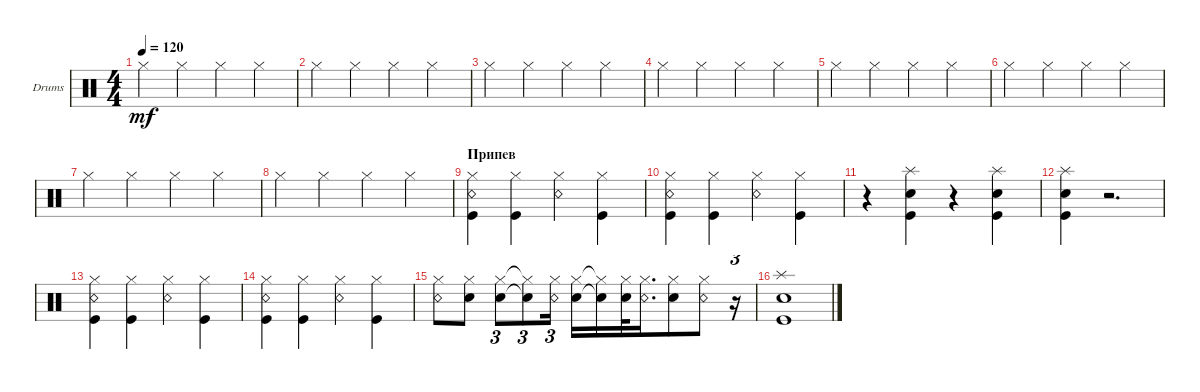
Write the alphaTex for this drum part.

\bracketExtendMode groupsimilarinstruments
\firstSystemTrackNameOrientation horizontal
\otherSystemsTrackNameOrientation horizontal
\track ("БАРАБАНЫ" "Drums") {instrument percussion}
\staff {score}
\articulation defaults
\ts (4 4)
\tempo 120
\clef neutral
\ks c "Hi-Hat (closed)".4{dy mf} "Hi-Hat (closed)".4 "Hi-Hat (closed)".4 "Hi-Hat (closed)".4
|
"Hi-Hat (closed)".4 "Hi-Hat (closed)".4 "Hi-Hat (closed)".4 "Hi-Hat (closed)".4 |
"Hi-Hat (closed)".4 "Hi-Hat (closed)".4 "Hi-Hat (closed)".4 "Hi-Hat (closed)".4 |
"Hi-Hat (closed)".4 "Hi-Hat (closed)".4 "Hi-Hat (closed)".4 "Hi-Hat (closed)".4 |
"Hi-Hat (closed)".4 "Hi-Hat (closed)".4 "Hi-Hat (closed)".4 "Hi-Hat (closed)".4 |
"Hi-Hat (closed)".4 "Hi-Hat (closed)".4 "Hi-Hat (closed)".4 "Hi-Hat (closed)".4 |
"Hi-Hat (closed)".4 "Hi-Hat (closed)".4 "Hi-Hat (closed)".4 "Hi-Hat (closed)".4 |
"Hi-Hat (closed)".4 "Hi-Hat (closed)".4 "Hi-Hat (closed)".4 "Hi-Hat (closed)".4 |
\section ("" "Припев")
("Snare (rim shot)" "Kick (hit)" "Hi-Hat (closed)").4 ("Kick (hit)" "Hi-Hat (closed)").4 ("Snare (rim shot)" "Hi-Hat (closed)").4 ("Kick (hit)" "Hi-Hat (closed)").4 |
("Snare (rim shot)" "Kick (hit)" "Hi-Hat (closed)").4 ("Kick (hit)" "Hi-Hat (closed)").4 ("Snare (rim shot)" "Hi-Hat (closed)").4 ("Kick (hit)" "Hi-Hat (closed)").4 |
r.4 ("Kick (hit)" "Snare (hit) 2" "Splash (hit)").4 r.4 ("Kick (hit)" "Snare (hit) 2" "Splash (hit)").4 |
("Splash (hit)" "Snare (hit) 2" "Kick (hit)").4 r.2{d} |
("Snare (rim shot)" "Kick (hit)" "Hi-Hat (closed)").4 ("Kick (hit)" "Hi-Hat (closed)").4 ("Snare (rim shot)" "Hi-Hat (closed)").4 ("Kick (hit)" "Hi-Hat (closed)").4 |
("Snare (rim shot)" "Kick (hit)" "Hi-Hat (closed)").4 ("Kick (hit)" "Hi-Hat (closed)").4 ("Snare (rim shot)" "Hi-Hat (closed)").4 ("Kick (hit)" "Hi-Hat (closed)").4 |
("Snare (rim shot)" "Hi-Hat (closed)").8 ("Snare (hit) 2" "Hi-Hat (closed)").8 ("Snare (hit) 2" "Hi-Hat (closed)").8{tu (3 2) beam merge} ("Snare (hit) 2"{t} "Hi-Hat (closed)"{t}).8{tu (3 2) beam merge} ("Snare (rim shot)" "Hi-Hat (closed)").16{tu (3 2)} ("Snare (hit) 2" "Hi-Hat (closed)").16{beam merge} ("Snare (hit) 2"{t} "Hi-Hat (closed)"{t}).16{beam merge} ("Snare (hit) 2" "Hi-Hat (closed)").32{beam merge} ("Snare (rim shot)" "Hi-Hat (closed)").16{d} ("Snare (hit) 2" "Hi-Hat (closed)").8{beam merge} ("Snare (rim shot)" "Hi-Hat (closed)").8 r.16{tu (3 2)} |
("Snare (hit) 2" "Kick (hit)" "Splash (hit)").1
